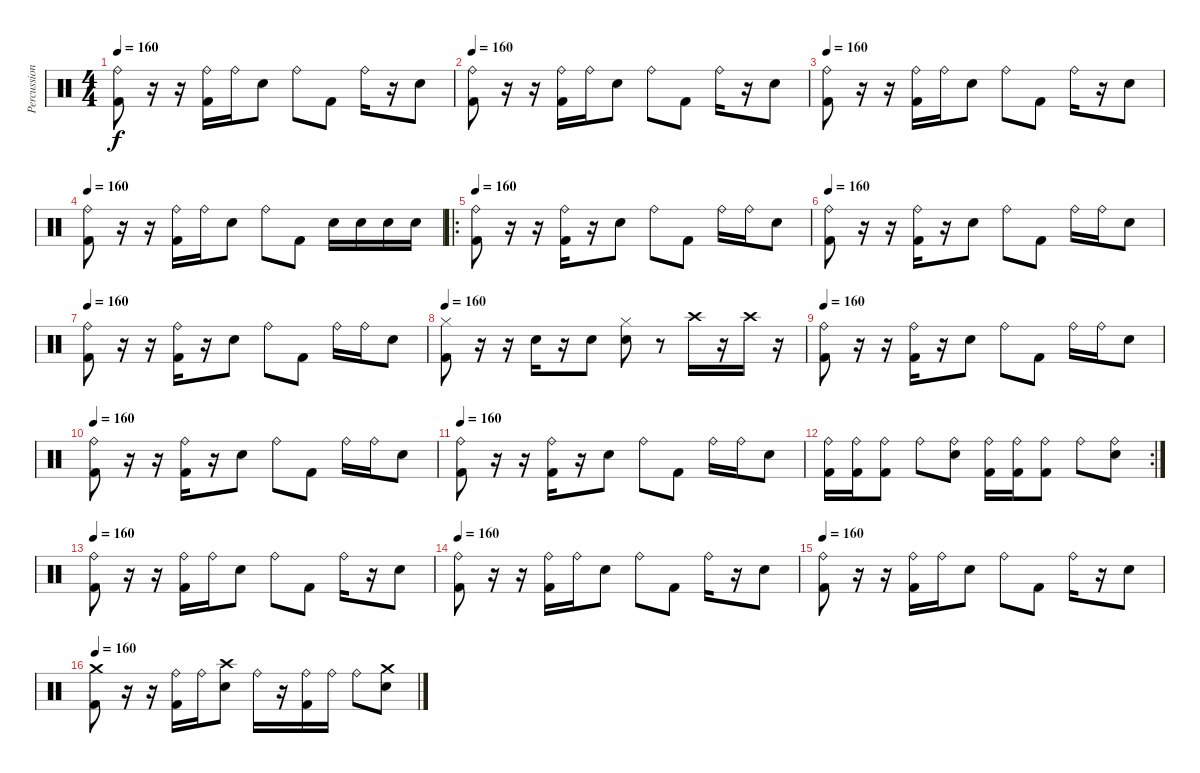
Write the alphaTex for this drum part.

\track ("Percussions" "Percussion") {instrument percussion}
\staff {score}
\articulation defaults
\ts (4 4)
\tempo 160
\clef neutral
\ks c
("Kick (hit) 2" "Ride (bell)").8{dy f} r.16 r.16 ("Kick (hit) 2" "Ride (bell)").16 "Ride (bell)".16 "Electric Snare (hit)".8 "Ride (bell)".8 "Kick (hit) 2".8 "Ride (bell)".16 r.16 "Electric Snare (hit)".8 |
\tempo 160
("Kick (hit) 2" "Ride (bell)").8 r.16 r.16 ("Kick (hit) 2" "Ride (bell)").16 "Ride (bell)".16 "Electric Snare (hit)".8 "Ride (bell)".8 "Kick (hit) 2".8 "Ride (bell)".16 r.16 "Electric Snare (hit)".8 |
\tempo 160
("Kick (hit) 2" "Ride (bell)").8 r.16 r.16 ("Kick (hit) 2" "Ride (bell)").16 "Ride (bell)".16 "Electric Snare (hit)".8 "Ride (bell)".8 "Kick (hit) 2".8 "Ride (bell)".16 r.16 "Electric Snare (hit)".8 |
\tempo 160
("Kick (hit) 2" "Ride (bell)").8 r.16 r.16 ("Kick (hit) 2" "Ride (bell)").16 "Ride (bell)".16 "Electric Snare (hit)".8 "Ride (bell)".8 "Kick (hit) 2".8 "Electric Snare (hit)".16 "Electric Snare (hit)".16 "Snare (hit) 2".16 "Snare (hit) 2".16 |
\ro
\tempo 160
("Kick (hit) 2" "Ride (bell)").8 r.16 r.16 ("Kick (hit) 2" "Ride (bell)").16 r.16 "Electric Snare (hit)".8 "Ride (bell)".8 "Kick (hit) 2".8 "Ride (bell)".16 "Ride (bell)".16 "Electric Snare (hit)".8 |
\tempo 160
("Kick (hit) 2" "Ride (bell)").8 r.16 r.16 ("Kick (hit) 2" "Ride (bell)").16 r.16 "Electric Snare (hit)".8 "Ride (bell)".8 "Kick (hit) 2".8 "Ride (bell)".16 "Ride (bell)".16 "Electric Snare (hit)".8 |
\tempo 160
("Kick (hit) 2" "Ride (bell)").8 r.16 r.16 ("Kick (hit) 2" "Ride (bell)").16 r.16 "Electric Snare (hit)".8 "Ride (bell)".8 "Kick (hit) 2".8 "Ride (bell)".16 "Ride (bell)".16 "Electric Snare (hit)".8 |
\tempo 160
("Kick (hit) 2" "Hi-Hat (closed)").8 r.16 r.16 "Snare (hit) 2".16 r.16 "Electric Snare (hit)".8 ("Electric Snare (hit)" "Hi-Hat (closed)").8 r.8 "Crash high (hit)".16 r.16 "Crash high (hit)".16 r.16 |
\tempo 160
("Kick (hit) 2" "Ride (bell)").8 r.16 r.16 ("Kick (hit) 2" "Ride (bell)").16 r.16 "Electric Snare (hit)".8 "Ride (bell)".8 "Kick (hit) 2".8 "Ride (bell)".16 "Ride (bell)".16 "Electric Snare (hit)".8 |
\tempo 160
("Kick (hit) 2" "Ride (bell)").8 r.16 r.16 ("Kick (hit) 2" "Ride (bell)").16 r.16 "Electric Snare (hit)".8 "Ride (bell)".8 "Kick (hit) 2".8 "Ride (bell)".16 "Ride (bell)".16 "Electric Snare (hit)".8 |
\tempo 160
("Kick (hit) 2" "Ride (bell)").8 r.16 r.16 ("Kick (hit) 2" "Ride (bell)").16 r.16 "Electric Snare (hit)".8 "Ride (bell)".8 "Kick (hit) 2".8 "Ride (bell)".16 "Ride (bell)".16 "Electric Snare (hit)".8 |
\rc 2
("Kick (hit) 2" "Ride (bell)").16 ("Kick (hit) 2" "Ride (bell)").16 ("Kick (hit) 2" "Ride (bell)").8 "Ride (bell)".8 ("Electric Snare (hit)" "Ride (bell)").8 ("Kick (hit) 2" "Ride (bell)").16 ("Kick (hit) 2" "Ride (bell)").16 ("Kick (hit) 2" "Ride (bell)").8 "Ride (bell)".8 ("Electric Snare (hit)" "Ride (bell)").8 |
\tempo 160
("Kick (hit) 2" "Ride (bell)").8 r.16 r.16 ("Kick (hit) 2" "Ride (bell)").16 "Ride (bell)".16 "Electric Snare (hit)".8 "Ride (bell)".8 "Kick (hit) 2".8 "Ride (bell)".16 r.16 "Electric Snare (hit)".8 |
\tempo 160
("Kick (hit) 2" "Ride (bell)").8 r.16 r.16 ("Kick (hit) 2" "Ride (bell)").16 "Ride (bell)".16 "Electric Snare (hit)".8 "Ride (bell)".8 "Kick (hit) 2".8 "Ride (bell)".16 r.16 "Electric Snare (hit)".8 |
\tempo 160
("Kick (hit) 2" "Ride (bell)").8 r.16 r.16 ("Kick (hit) 2" "Ride (bell)").16 "Ride (bell)".16 "Electric Snare (hit)".8 "Ride (bell)".8 "Kick (hit) 2".8 "Ride (bell)".16 r.16 "Electric Snare (hit)".8 |
\tempo 160
("Kick (hit) 2" "Crash medium (hit)").8 r.16 r.16 ("Kick (hit) 2" "Ride (bell)").16 "Ride (bell)".16 ("Electric Snare (hit)" "Crash high (hit)").8 "Ride (bell)".16 r.16 ("Kick (hit) 2" "Ride (bell)").16 "Ride (bell)".16 "Ride (bell)".8 ("Electric Snare (hit)" "Crash medium (hit)").8
